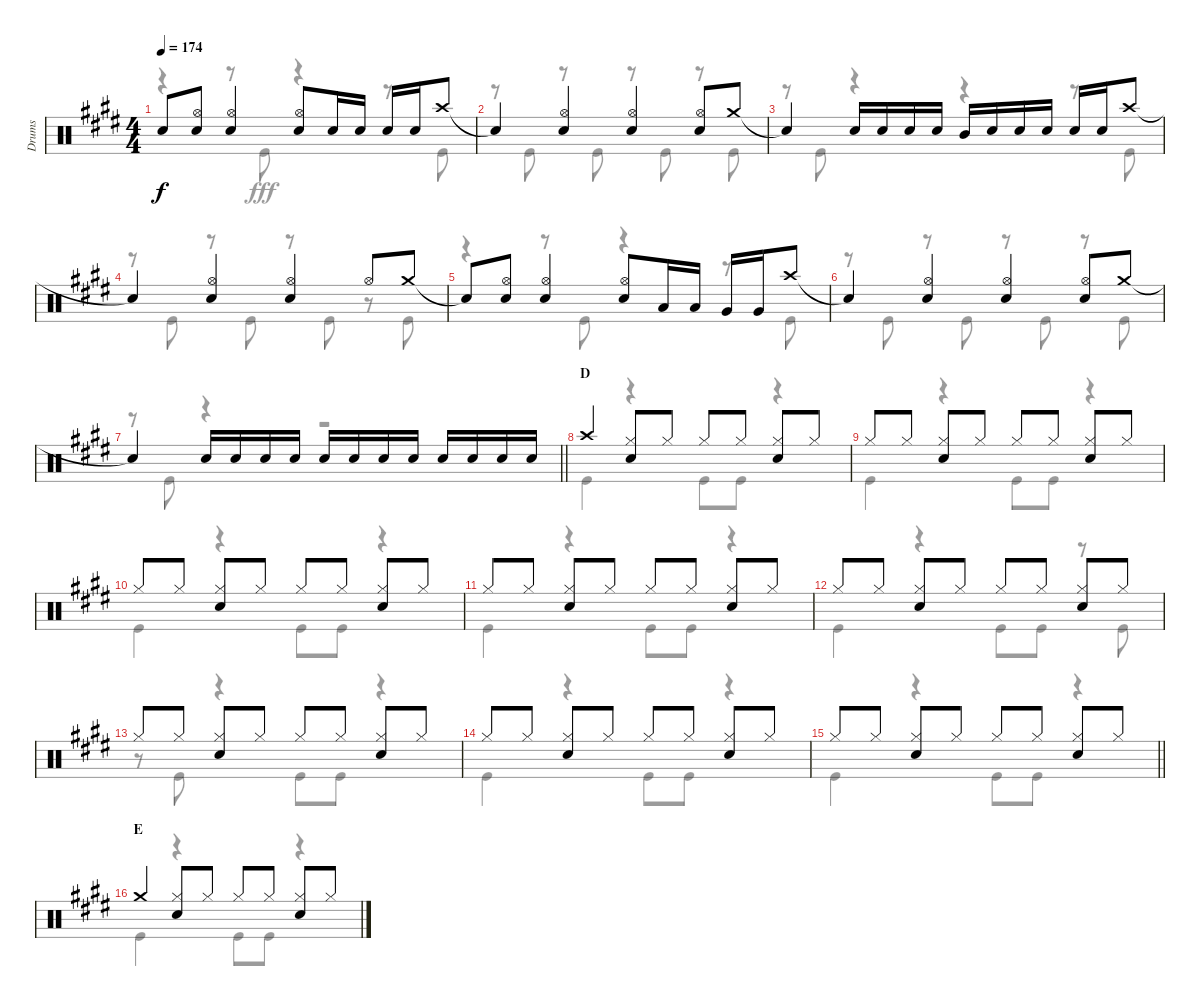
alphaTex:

\track ("Drums" "Drums") {instrument percussion}
\staff {score}
\articulation defaults
\voice
\ts (4 4)
\tempo 174
\clef neutral
\ks e "Snare (hit)"{t}.8{dy f}
("Hi-Hat (open)" "Snare (hit) 2").8 ("Hi-Hat (open)" "Snare (hit) 2").4 ("Hi-Hat (open)" "Snare (hit) 2").8 "Snare (hit) 2".16 "Snare (hit) 2".16 "Snare (hit) 2".16 "Snare (hit) 2".16 "Crash high (hit)".8 |
"Snare (hit)"{t}.4 ("Hi-Hat (open)" "Snare (hit) 2").4 ("Hi-Hat (open)" "Snare (hit) 2").4 ("Hi-Hat (open)" "Snare (hit) 2").8 "Crash medium (hit)".8 |
"Snare (hit)"{t}.4 "Snare (hit) 2".16 "Snare (hit) 2".16 "Snare (hit) 2".16 "Snare (hit) 2".16 "Mid Tom (hit)".16 "Snare (hit) 2".16 "Snare (hit) 2".16 "Snare (hit) 2".16 "Snare (hit) 2".16 "Snare (hit) 2".16 "Crash high (hit)".8 |
"Snare (hit)"{t}.4 ("Hi-Hat (open)" "Snare (hit) 2").4 ("Hi-Hat (open)" "Snare (hit) 2").4 "Hi-Hat (open)".8 "Crash medium (hit)".8 |
"Snare (hit)"{t}.8 ("Hi-Hat (open)" "Snare (hit) 2").8 ("Hi-Hat (open)" "Snare (hit) 2").4 ("Hi-Hat (open)" "Snare (hit) 2").8 "Low Tom (hit)".16 "Low Tom (hit)".16 "Very Low Tom (hit)".16 "Very Low Tom (hit)".16 "Crash high (hit)".8 |
"Snare (hit)"{t}.4 ("Hi-Hat (open)" "Snare (hit) 2").4 ("Hi-Hat (open)" "Snare (hit) 2").4 ("Hi-Hat (open)" "Snare (hit) 2").8 "Crash medium (hit)".8 |
\barLineRight lightlight "Snare (hit)"{t}.4 "Snare (hit) 2".16 "Snare (hit) 2".16 "Snare (hit) 2".16 "Snare (hit) 2".16 "Snare (hit) 2".16 "Snare (hit) 2".16 "Snare (hit) 2".16 "Snare (hit) 2".16 "Snare (hit) 2".16 "Snare (hit) 2".16 "Snare (hit) 2".16 "Snare (hit) 2".16
|
\section ("" "D")
"Crash high (hit)".4 ("Hi-Hat (closed)" "Snare (hit) 2").8 "Hi-Hat (closed)".8 "Hi-Hat (closed)".8 "Hi-Hat (closed)".8 ("Hi-Hat (closed)" "Snare (hit) 2").8 "Hi-Hat (closed)".8 |
"Hi-Hat (closed)".8 "Hi-Hat (closed)".8 ("Hi-Hat (closed)" "Snare (hit) 2").8 "Hi-Hat (closed)".8 "Hi-Hat (closed)".8 "Hi-Hat (closed)".8 ("Hi-Hat (closed)" "Snare (hit) 2").8 "Hi-Hat (closed)".8 |
"Hi-Hat (closed)".8 "Hi-Hat (closed)".8 ("Hi-Hat (closed)" "Snare (hit) 2").8 "Hi-Hat (closed)".8 "Hi-Hat (closed)".8 "Hi-Hat (closed)".8 ("Hi-Hat (closed)" "Snare (hit) 2").8 "Hi-Hat (closed)".8 |
"Hi-Hat (closed)".8 "Hi-Hat (closed)".8 ("Hi-Hat (closed)" "Snare (hit) 2").8 "Hi-Hat (closed)".8 "Hi-Hat (closed)".8 "Hi-Hat (closed)".8 ("Hi-Hat (closed)" "Snare (hit) 2").8 "Hi-Hat (closed)".8 |
"Hi-Hat (closed)".8 "Hi-Hat (closed)".8 ("Hi-Hat (closed)" "Snare (hit) 2").8 "Hi-Hat (closed)".8 "Hi-Hat (closed)".8 "Hi-Hat (closed)".8 ("Hi-Hat (closed)" "Snare (hit) 2").8 "Hi-Hat (closed)".8 |
"Hi-Hat (closed)".8 "Hi-Hat (closed)".8 ("Hi-Hat (closed)" "Snare (hit) 2").8 "Hi-Hat (closed)".8 "Hi-Hat (closed)".8 "Hi-Hat (closed)".8 ("Hi-Hat (closed)" "Snare (hit) 2").8 "Hi-Hat (closed)".8 |
"Hi-Hat (closed)".8 "Hi-Hat (closed)".8 ("Hi-Hat (closed)" "Snare (hit) 2").8 "Hi-Hat (closed)".8 "Hi-Hat (closed)".8 "Hi-Hat (closed)".8 ("Hi-Hat (closed)" "Snare (hit) 2").8 "Hi-Hat (closed)".8 |
\barLineRight lightlight "Hi-Hat (closed)".8 "Hi-Hat (closed)".8
("Hi-Hat (closed)" "Snare (hit) 2").8 "Hi-Hat (closed)".8 "Hi-Hat (closed)".8 "Hi-Hat (closed)".8 ("Hi-Hat (closed)" "Snare (hit) 2").8 "Hi-Hat (closed)".8 |
\section ("" "E")
"Crash medium (hit)".4 ("Hi-Hat (closed)" "Snare (hit) 2").8 "Hi-Hat (closed)".8 "Hi-Hat (closed)".8 "Hi-Hat (closed)".8 ("Hi-Hat (closed)" "Snare (hit) 2").8 "Hi-Hat (closed)".8
\voice
\clef neutral
\ottava regular
\simile none
\ks e
r.4{dy fff} r.8 "Kick (hit)".8 r.4 r.8 "Kick (hit)".8 |
r.8 "Kick (hit)".8 r.8 "Kick (hit)".8 r.8 "Kick (hit)".8 r.8 "Kick (hit)".8 |
r.8 "Kick (hit)".8 r.4 r.4 r.8 "Kick (hit)".8 |
r.8 "Kick (hit)".8 r.8 "Kick (hit)".8 r.8 "Kick (hit)".8 r.8 "Kick (hit)".8 |
r.4 r.8 "Kick (hit)".8 r.4 r.8 "Kick (hit)".8 |
r.8 "Kick (hit)".8 r.8 "Kick (hit)".8 r.8 "Kick (hit)".8 r.8 "Kick (hit)".8 |
\barLineRight lightlight
r.8 "Kick (hit)".8 r.4 r.2 |
"Kick (hit)".4 r.4 "Kick (hit)".8 "Kick (hit)".8 r.4 |
"Kick (hit)".4 r.4 "Kick (hit)".8 "Kick (hit)".8 r.4 |
"Kick (hit)".4 r.4 "Kick (hit)".8 "Kick (hit)".8 r.4 |
"Kick (hit)".4 r.4 "Kick (hit)".8 "Kick (hit)".8 r.4 |
"Kick (hit)".4 r.4 "Kick (hit)".8 "Kick (hit)".8 r.8 "Kick (hit)".8 |
r.8 "Kick (hit)".8 r.4 "Kick (hit)".8 "Kick (hit)".8 r.4 |
"Kick (hit)".4 r.4 "Kick (hit)".8 "Kick (hit)".8 r.4 |
\barLineRight lightlight "Kick (hit)".4
r.4 "Kick (hit)".8 "Kick (hit)".8 r.4 |
"Kick (hit)".4 r.4 "Kick (hit)".8 "Kick (hit)".8 r.4
